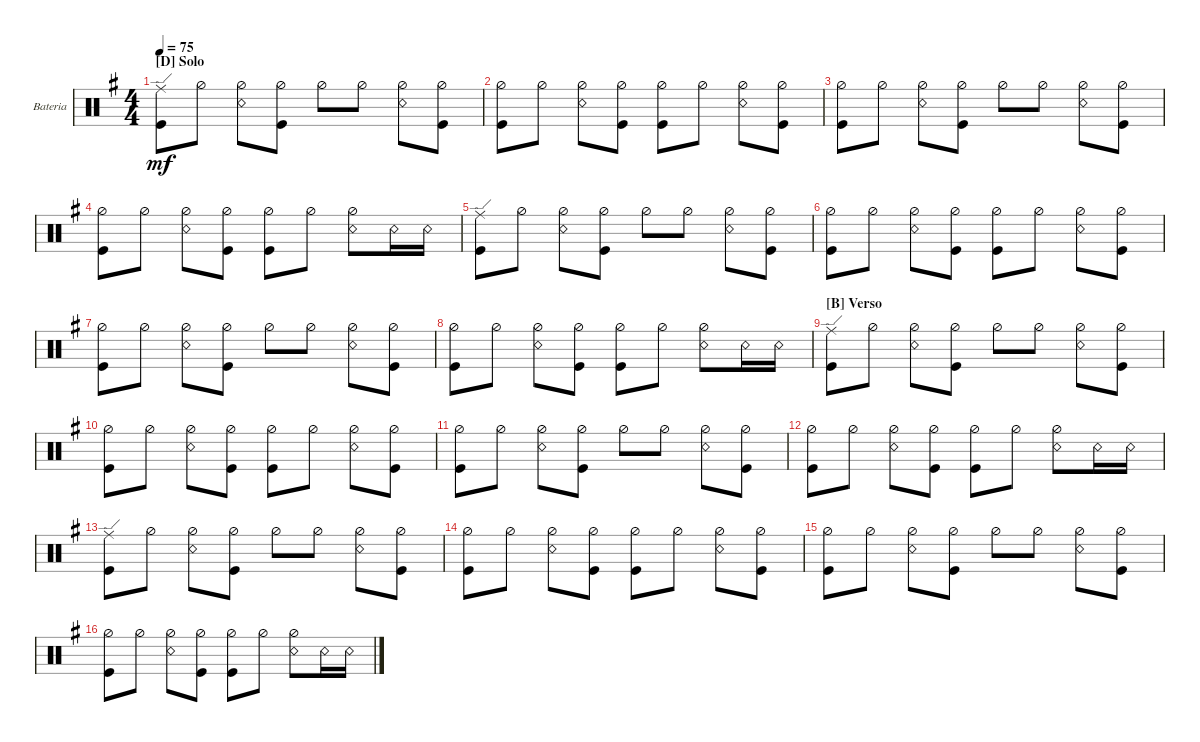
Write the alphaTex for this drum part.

\defaultSystemsLayout 4
\bracketExtendMode groupsimilarinstruments
\firstSystemTrackNameOrientation horizontal
\otherSystemsTrackNameOrientation horizontal
\track ("Bateria" "Bateria") {multiBarRest instrument percussion}
\staff {score}
\articulation defaults
\ts (4 4)
\section ("D" "Solo")
\tempo 75
\clef neutral
\ks g
("Kick (hit)" "Ride (edge)").8{dy mf} "Hi-Hat (half)".8 ("Hi-Hat (half)" "Snare (rim shot)").8 ("Hi-Hat (half)" "Kick (hit)").8 "Hi-Hat (half)".8 "Hi-Hat (half)".8 ("Hi-Hat (half)" "Snare (rim shot)").8 ("Hi-Hat (half)" "Kick (hit)").8 |
("Hi-Hat (half)" "Kick (hit)").8 "Hi-Hat (half)".8 ("Hi-Hat (half)" "Snare (rim shot)").8 ("Hi-Hat (half)" "Kick (hit)").8 ("Hi-Hat (half)" "Kick (hit)").8 "Hi-Hat (half)".8 ("Snare (rim shot)" "Hi-Hat (half)").8 ("Hi-Hat (half)" "Kick (hit)").8 |
("Hi-Hat (half)" "Kick (hit)").8 "Hi-Hat (half)".8 ("Hi-Hat (half)" "Snare (rim shot)").8 ("Hi-Hat (half)" "Kick (hit)").8 "Hi-Hat (half)".8 "Hi-Hat (half)".8 ("Snare (rim shot)" "Hi-Hat (half)").8 ("Hi-Hat (half)" "Kick (hit)").8 |
("Hi-Hat (half)" "Kick (hit)").8 "Hi-Hat (half)".8 ("Hi-Hat (half)" "Snare (rim shot)").8 ("Hi-Hat (half)" "Kick (hit)").8 ("Hi-Hat (half)" "Kick (hit)").8 "Hi-Hat (half)".8 ("Snare (rim shot)" "Hi-Hat (half)").8 "Snare (rim shot)".16 "Snare (rim shot)".16 |
("Kick (hit)" "Ride (edge)").8 "Hi-Hat (half)".8 ("Hi-Hat (half)" "Snare (rim shot)").8 ("Hi-Hat (half)" "Kick (hit)").8 "Hi-Hat (half)".8 "Hi-Hat (half)".8 ("Hi-Hat (half)" "Snare (rim shot)").8 ("Hi-Hat (half)" "Kick (hit)").8 |
("Hi-Hat (half)" "Kick (hit)").8 "Hi-Hat (half)".8 ("Hi-Hat (half)" "Snare (rim shot)").8 ("Hi-Hat (half)" "Kick (hit)").8 ("Hi-Hat (half)" "Kick (hit)").8 "Hi-Hat (half)".8 ("Snare (rim shot)" "Hi-Hat (half)").8 ("Hi-Hat (half)" "Kick (hit)").8 |
("Hi-Hat (half)" "Kick (hit)").8 "Hi-Hat (half)".8 ("Hi-Hat (half)" "Snare (rim shot)").8 ("Hi-Hat (half)" "Kick (hit)").8 "Hi-Hat (half)".8 "Hi-Hat (half)".8 ("Snare (rim shot)" "Hi-Hat (half)").8 ("Hi-Hat (half)" "Kick (hit)").8 |
("Hi-Hat (half)" "Kick (hit)").8 "Hi-Hat (half)".8 ("Hi-Hat (half)" "Snare (rim shot)").8 ("Hi-Hat (half)" "Kick (hit)").8 ("Hi-Hat (half)" "Kick (hit)").8 "Hi-Hat (half)".8 ("Snare (rim shot)" "Hi-Hat (half)").8 "Snare (rim shot)".16 "Snare (rim shot)".16 |
\section ("B" "Verso")
("Kick (hit)" "Ride (edge)").8 "Hi-Hat (half)".8 ("Hi-Hat (half)" "Snare (rim shot)").8 ("Hi-Hat (half)" "Kick (hit)").8 "Hi-Hat (half)".8 "Hi-Hat (half)".8 ("Hi-Hat (half)" "Snare (rim shot)").8 ("Hi-Hat (half)" "Kick (hit)").8 |
("Hi-Hat (half)" "Kick (hit)").8 "Hi-Hat (half)".8 ("Hi-Hat (half)" "Snare (rim shot)").8 ("Hi-Hat (half)" "Kick (hit)").8 ("Hi-Hat (half)" "Kick (hit)").8 "Hi-Hat (half)".8 ("Snare (rim shot)" "Hi-Hat (half)").8 ("Hi-Hat (half)" "Kick (hit)").8 |
("Hi-Hat (half)" "Kick (hit)").8 "Hi-Hat (half)".8 ("Hi-Hat (half)" "Snare (rim shot)").8 ("Hi-Hat (half)" "Kick (hit)").8 "Hi-Hat (half)".8 "Hi-Hat (half)".8 ("Snare (rim shot)" "Hi-Hat (half)").8 ("Hi-Hat (half)" "Kick (hit)").8 |
("Hi-Hat (half)" "Kick (hit)").8 "Hi-Hat (half)".8 ("Hi-Hat (half)" "Snare (rim shot)").8 ("Hi-Hat (half)" "Kick (hit)").8 ("Hi-Hat (half)" "Kick (hit)").8 "Hi-Hat (half)".8 ("Snare (rim shot)" "Hi-Hat (half)").8 "Snare (rim shot)".16 "Snare (rim shot)".16 |
("Kick (hit)" "Ride (edge)").8 "Hi-Hat (half)".8 ("Hi-Hat (half)" "Snare (rim shot)").8 ("Hi-Hat (half)" "Kick (hit)").8 "Hi-Hat (half)".8 "Hi-Hat (half)".8 ("Hi-Hat (half)" "Snare (rim shot)").8 ("Hi-Hat (half)" "Kick (hit)").8 |
("Hi-Hat (half)" "Kick (hit)").8 "Hi-Hat (half)".8 ("Hi-Hat (half)" "Snare (rim shot)").8 ("Hi-Hat (half)" "Kick (hit)").8 ("Hi-Hat (half)" "Kick (hit)").8 "Hi-Hat (half)".8 ("Snare (rim shot)" "Hi-Hat (half)").8 ("Hi-Hat (half)" "Kick (hit)").8 |
("Hi-Hat (half)" "Kick (hit)").8 "Hi-Hat (half)".8 ("Hi-Hat (half)" "Snare (rim shot)").8 ("Hi-Hat (half)" "Kick (hit)").8 "Hi-Hat (half)".8 "Hi-Hat (half)".8 ("Snare (rim shot)" "Hi-Hat (half)").8 ("Hi-Hat (half)" "Kick (hit)").8 |
("Hi-Hat (half)" "Kick (hit)").8 "Hi-Hat (half)".8 ("Hi-Hat (half)" "Snare (rim shot)").8 ("Hi-Hat (half)" "Kick (hit)").8 ("Hi-Hat (half)" "Kick (hit)").8 "Hi-Hat (half)".8 ("Snare (rim shot)" "Hi-Hat (half)").8 "Snare (rim shot)".16 "Snare (rim shot)".16
